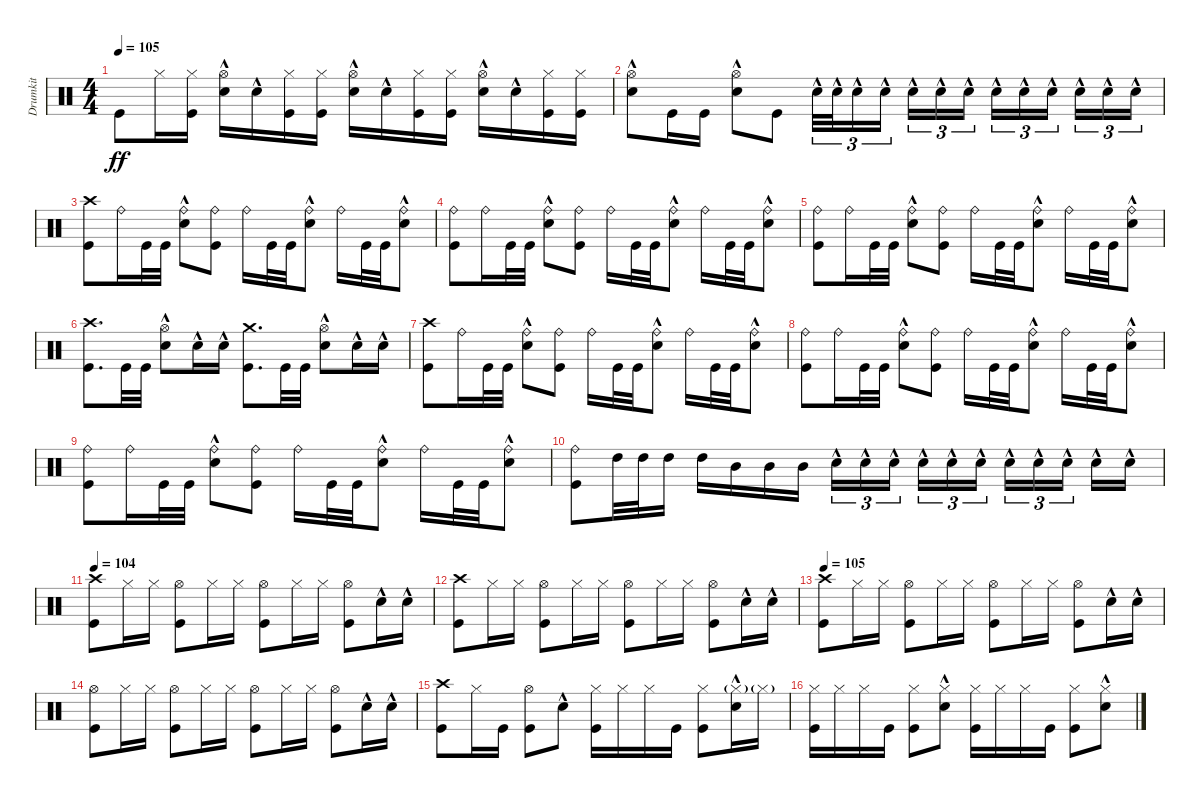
\track ("Drumkit" "Drumkit") {instrument percussion}
\staff {score}
\articulation defaults
\ts (4 4)
\tempo 105
\clef neutral
\ks aminor "Kick (hit)".8{dy ff} "Hi-Hat (closed)".16
("Kick (hit)" "Hi-Hat (closed)").16 ("Snare (hit) 2"{hac} "Hi-Hat (open)").16 "Snare (hit) 2"{hac}.16 ("Kick (hit)" "Hi-Hat (closed)").16 ("Kick (hit)" "Hi-Hat (closed)").16 ("Snare (hit) 2"{hac} "Hi-Hat (open)").16 "Snare (hit) 2"{hac}.16 ("Kick (hit)" "Hi-Hat (closed)").16 ("Kick (hit)" "Hi-Hat (closed)").16 ("Snare (hit) 2"{hac} "Hi-Hat (open)").16 "Snare (hit) 2"{hac}.16 ("Kick (hit)" "Hi-Hat (closed)").16 ("Kick (hit)" "Hi-Hat (closed)").16 |
("Snare (hit) 2"{hac} "Hi-Hat (open)").8 "Kick (hit)".16 "Kick (hit)".16 ("Snare (hit) 2"{hac} "Hi-Hat (open)").8 "Kick (hit)".8 "Snare (hit) 2"{hac}.32{tu (3 2)} "Snare (hit) 2"{hac}.32{tu (3 2)} "Snare (hit) 2"{hac}.16{tu (3 2)} "Snare (hit) 2"{hac}.16{tu (3 2) beam splitsecondary} "Snare (hit) 2"{hac}.16{tu (3 2)} "Snare (hit) 2"{hac}.16{tu (3 2)} "Snare (hit) 2"{hac}.16{tu (3 2)} "Snare (hit) 2"{hac}.16{tu (3 2)} "Snare (hit) 2"{hac}.16{tu (3 2)} "Snare (hit) 2"{hac}.16{tu (3 2) beam splitsecondary} "Snare (hit) 2"{hac}.16{tu (3 2)} "Snare (hit) 2"{hac}.16{tu (3 2)} "Snare (hit) 2"{hac}.16{tu (3 2)} |
("Kick (hit)" "Crash high (hit)").8 "Ride (bell)".16 "Kick (hit)".32 "Kick (hit)".32 ("Snare (hit) 2"{hac} "Ride (bell)").8 ("Kick (hit)" "Ride (bell)").8 "Ride (bell)".16 "Kick (hit)".32 "Kick (hit)".32 ("Snare (hit) 2"{hac} "Ride (bell)").8 "Ride (bell)".16 "Kick (hit)".32 "Kick (hit)".32 ("Snare (hit) 2"{hac} "Ride (bell)").8 |
("Kick (hit)" "Ride (bell)").8 "Ride (bell)".16 "Kick (hit)".32 "Kick (hit)".32 ("Snare (hit) 2"{hac} "Ride (bell)").8 ("Kick (hit)" "Ride (bell)").8 "Ride (bell)".16 "Kick (hit)".32 "Kick (hit)".32 ("Snare (hit) 2"{hac} "Ride (bell)").8 "Ride (bell)".16 "Kick (hit)".32 "Kick (hit)".32 ("Snare (hit) 2"{hac} "Ride (bell)").8 |
("Kick (hit)" "Ride (bell)").8 "Ride (bell)".16 "Kick (hit)".32 "Kick (hit)".32 ("Snare (hit) 2"{hac} "Ride (bell)").8 ("Kick (hit)" "Ride (bell)").8 "Ride (bell)".16 "Kick (hit)".32 "Kick (hit)".32 ("Snare (hit) 2"{hac} "Ride (bell)").8 "Ride (bell)".16 "Kick (hit)".32 "Kick (hit)".32 ("Snare (hit) 2"{hac} "Ride (bell)").8 |
("Kick (hit)" "Crash high (hit)").8{d} "Kick (hit)".32 "Kick (hit)".32 ("Snare (hit) 2"{hac} "Hi-Hat (open)").8 "Snare (hit) 2"{hac}.16 "Snare (hit) 2"{hac}.16 ("Kick (hit)" "Crash medium (hit)").8{d} "Kick (hit)".32 "Kick (hit)".32 ("Snare (hit) 2"{hac} "Hi-Hat (open)").8 "Snare (hit) 2"{hac}.16 "Snare (hit) 2"{hac}.16 |
("Kick (hit)" "Crash high (hit)").8 "Ride (bell)".16 "Kick (hit)".32 "Kick (hit)".32 ("Snare (hit) 2"{hac} "Ride (bell)").8 ("Kick (hit)" "Ride (bell)").8 "Ride (bell)".16 "Kick (hit)".32 "Kick (hit)".32 ("Snare (hit) 2"{hac} "Ride (bell)").8 "Ride (bell)".16 "Kick (hit)".32 "Kick (hit)".32 ("Snare (hit) 2"{hac} "Ride (bell)").8 |
("Kick (hit)" "Ride (bell)").8 "Ride (bell)".16 "Kick (hit)".32 "Kick (hit)".32 ("Snare (hit) 2"{hac} "Ride (bell)").8 ("Kick (hit)" "Ride (bell)").8 "Ride (bell)".16 "Kick (hit)".32 "Kick (hit)".32 ("Snare (hit) 2"{hac} "Ride (bell)").8 "Ride (bell)".16 "Kick (hit)".32 "Kick (hit)".32 ("Snare (hit) 2"{hac} "Ride (bell)").8 |
("Kick (hit)" "Ride (bell)").8 "Ride (bell)".16 "Kick (hit)".32 "Kick (hit)".32 ("Snare (hit) 2"{hac} "Ride (bell)").8 ("Kick (hit)" "Ride (bell)").8 "Ride (bell)".16 "Kick (hit)".32 "Kick (hit)".32 ("Snare (hit) 2"{hac} "Ride (bell)").8 "Ride (bell)".16 "Kick (hit)".32 "Kick (hit)".32 ("Snare (hit) 2"{hac} "Ride (bell)").8 |
("Kick (hit)" "Ride (bell)").8 "High Tom (hit)".32 "High Tom (hit)".32 "High Tom (hit)".16 "High Tom (hit)".16 "Mid Tom (hit)".16 "Mid Tom (hit)".16 "Mid Tom (hit)".16 "Snare (hit) 2"{hac}.16{tu (3 2)} "Snare (hit) 2"{hac}.16{tu (3 2)} "Snare (hit) 2"{hac}.16{tu (3 2) beam splitsecondary} "Snare (hit) 2"{hac}.16{tu (3 2)} "Snare (hit) 2"{hac}.16{tu (3 2)} "Snare (hit) 2"{hac}.16{tu (3 2)} "Snare (hit) 2"{hac}.16{tu (3 2)} "Snare (hit) 2"{hac}.16{tu (3 2)} "Snare (hit) 2"{hac}.16{tu (3 2) beam splitsecondary} "Snare (hit) 2"{hac}.16 "Snare (hit) 2"{hac}.16 |
\tempo 104
("Kick (hit)" "Crash high (hit)").8 "Hi-Hat (closed)".16 "Hi-Hat (closed)".16 ("Kick (hit)" "Hi-Hat (open)").8 "Hi-Hat (closed)".16 "Hi-Hat (closed)".16 ("Kick (hit)" "Hi-Hat (open)").8 "Hi-Hat (closed)".16 "Hi-Hat (closed)".16 ("Kick (hit)" "Hi-Hat (open)").8 "Snare (hit) 2"{hac}.16 "Snare (hit) 2"{hac}.16 |
("Kick (hit)" "Crash high (hit)").8 "Hi-Hat (closed)".16 "Hi-Hat (closed)".16 ("Kick (hit)" "Hi-Hat (open)").8 "Hi-Hat (closed)".16 "Hi-Hat (closed)".16 ("Kick (hit)" "Hi-Hat (open)").8 "Hi-Hat (closed)".16 "Hi-Hat (closed)".16 ("Kick (hit)" "Hi-Hat (open)").8 "Snare (hit) 2"{hac}.16 "Snare (hit) 2"{hac}.16 |
\tempo 105
("Kick (hit)" "Crash high (hit)").8 "Hi-Hat (closed)".16 "Hi-Hat (closed)".16 ("Kick (hit)" "Hi-Hat (open)").8 "Hi-Hat (closed)".16 "Hi-Hat (closed)".16 ("Kick (hit)" "Hi-Hat (open)").8 "Hi-Hat (closed)".16 "Hi-Hat (closed)".16 ("Kick (hit)" "Hi-Hat (open)").8 "Snare (hit) 2"{hac}.16 "Snare (hit) 2"{hac}.16 |
\ks c
("Kick (hit)" "Hi-Hat (open)").8 "Hi-Hat (closed)".16 "Hi-Hat (closed)".16 ("Kick (hit)" "Hi-Hat (open)").8 "Hi-Hat (closed)".16 "Hi-Hat (closed)".16 ("Kick (hit)" "Hi-Hat (open)").8 "Hi-Hat (closed)".16 "Hi-Hat (closed)".16 ("Kick (hit)" "Hi-Hat (open)").8 "Snare (hit) 2"{hac}.16 "Snare (hit) 2"{hac}.16 |
("Kick (hit)" "Crash high (hit)").8 "Hi-Hat (closed)".16 "Kick (hit)".16 ("Kick (hit)" "Hi-Hat (open)").8 "Snare (hit) 2"{hac}.8 ("Kick (hit)" "Hi-Hat (closed)").16 "Hi-Hat (closed)".16 "Hi-Hat (closed)".16 "Kick (hit)".16 ("Kick (hit)" "Hi-Hat (closed)").8 ("Snare (hit) 2"{hac} "Hi-Hat (closed)"{g}).16 "Hi-Hat (closed)"{g}.16 |
\ks aminor
("Kick (hit)" "Hi-Hat (closed)").16 "Hi-Hat (closed)".16 "Hi-Hat (closed)".16 "Kick (hit)".16 ("Kick (hit)" "Hi-Hat (closed)").8 ("Snare (hit) 2"{hac} "Hi-Hat (closed)").8 ("Kick (hit)" "Hi-Hat (closed)").16 "Hi-Hat (closed)".16 "Hi-Hat (closed)".16 "Kick (hit)".16 ("Kick (hit)" "Hi-Hat (closed)").8 ("Snare (hit) 2"{hac} "Hi-Hat (closed)").8
